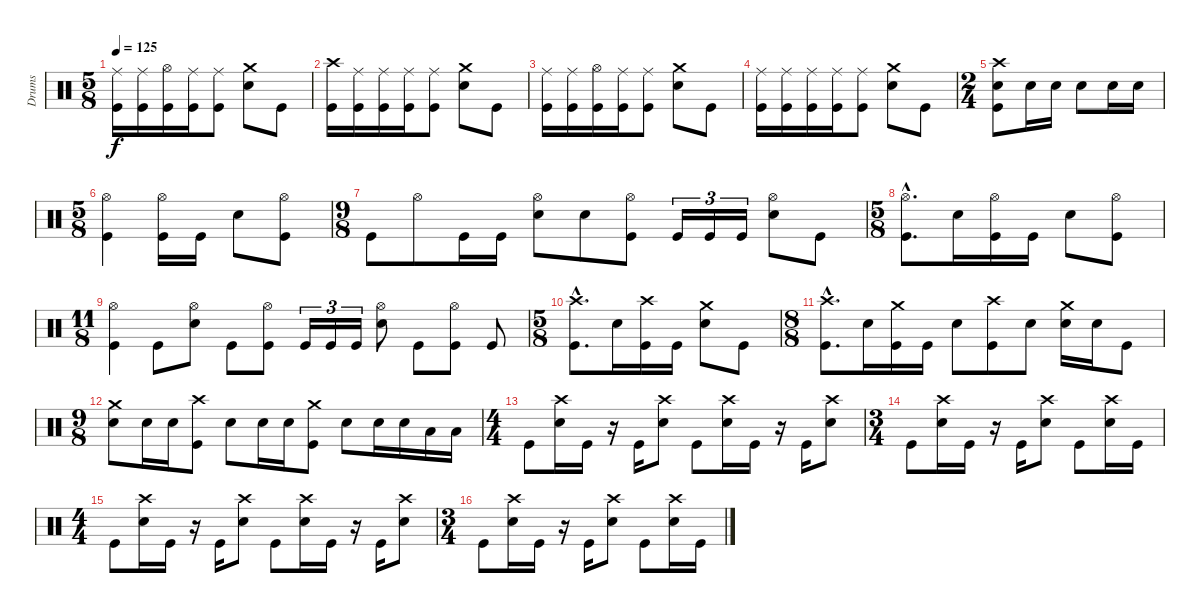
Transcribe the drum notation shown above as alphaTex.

\track ("Drums" "Drums") {instrument percussion}
\staff {score}
\articulation defaults
\ts (5 8)
\tempo 125
\clef neutral
\ks c
("Kick (hit)" "Ride (middle)").16{dy f} ("Kick (hit)" "Ride (middle)").16 ("Kick (hit)" "Hi-Hat (open)").16 ("Kick (hit)" "Ride (middle)").16 ("Kick (hit)" "Ride (middle)").8 ("Snare (hit) 2" "Crash medium (hit)").8 "Kick (hit)".8 |
("Kick (hit)" "Crash high (hit)").16 ("Kick (hit)" "Ride (middle)").16 ("Kick (hit)" "Ride (middle)").16 ("Kick (hit)" "Ride (middle)").16 ("Kick (hit)" "Ride (middle)").8 ("Snare (hit) 2" "Crash medium (hit)").8 "Kick (hit)".8 |
("Kick (hit)" "Ride (middle)").16 ("Kick (hit)" "Ride (middle)").16 ("Kick (hit)" "Hi-Hat (open)").16 ("Kick (hit)" "Ride (middle)").16 ("Kick (hit)" "Ride (middle)").8 ("Snare (hit) 2" "Crash medium (hit)").8 "Kick (hit)".8 |
("Kick (hit)" "Ride (middle)").16 ("Kick (hit)" "Ride (middle)").16 ("Kick (hit)" "Ride (middle)").16 ("Kick (hit)" "Ride (middle)").16 ("Kick (hit)" "Ride (middle)").8 ("Snare (hit) 2" "Crash medium (hit)").8 "Kick (hit)".8 |
\ts (2 4)
("Kick (hit)" "Snare (hit) 2" "Crash high (hit)").8 "Snare (hit) 2".16 "Snare (hit) 2".16 "Snare (hit) 2".8 "Snare (hit) 2".16 "Snare (hit) 2".16 |
\ts (5 8)
("Kick (hit)" "Hi-Hat (open)").4 ("Kick (hit)" "Hi-Hat (open)").16 "Kick (hit)".16 "Snare (hit) 2".8 ("Kick (hit)" "Hi-Hat (open)").8 |
\ts (9 8)
"Kick (hit)".8 "Hi-Hat (open)".8 "Kick (hit)".16 "Kick (hit)".16 ("Snare (hit) 2" "Hi-Hat (open)").8 "Snare (hit) 2".8 ("Kick (hit)" "Hi-Hat (open)").8 "Kick (hit)".16{tu (3 2)} "Kick (hit)".16{tu (3 2)} "Kick (hit)".16{tu (3 2)} ("Snare (hit) 2" "Hi-Hat (open)").8 "Kick (hit)".8 |
\ts (5 8)
("Kick (hit)"{hac} "Hi-Hat (open)"{hac}).8{d} "Snare (hit) 2".16 ("Kick (hit)" "Hi-Hat (open)").16 "Kick (hit)".16 "Snare (hit) 2".8 ("Kick (hit)" "Hi-Hat (open)").8 |
\ts (11 8)
("Kick (hit)" "Hi-Hat (open)").4 "Kick (hit)".8 ("Snare (hit) 2" "Hi-Hat (open)").8 "Kick (hit)".8 ("Kick (hit)" "Hi-Hat (open)").8 "Kick (hit)".16{tu (3 2)} "Kick (hit)".16{tu (3 2)} "Kick (hit)".16{tu (3 2)} ("Snare (hit) 2" "Hi-Hat (open)").8 "Kick (hit)".8 ("Kick (hit)" "Hi-Hat (open)").8 "Kick (hit)".8 |
\ts (5 8)
("Kick (hit)"{hac} "Crash high (hit)"{hac}).8{d} "Snare (hit) 2".16 ("Kick (hit)" "Crash high (hit)").16 "Kick (hit)".16 ("Snare (hit) 2" "Crash medium (hit)").8 "Kick (hit)".8 |
\ts (8 8)
("Kick (hit)"{hac} "Crash high (hit)"{hac}).8{d} "Snare (hit) 2".16 ("Kick (hit)" "Crash medium (hit)").16 "Kick (hit)".16 "Snare (hit) 2".8 ("Kick (hit)" "Crash high (hit)").8 "Snare (hit) 2".8 ("Snare (hit) 2" "Crash medium (hit)").16 "Snare (hit) 2".16 "Kick (hit)".8 |
\ts (9 8)
("Snare (hit) 2" "Crash medium (hit)").8 "Snare (hit) 2".16 "Snare (hit) 2".16 ("Kick (hit)" "Crash high (hit)").8 "Snare (hit) 2".8 "Snare (hit) 2".16 "Snare (hit) 2".16 ("Kick (hit)" "Crash medium (hit)").8 "Snare (hit) 2".8 "Snare (hit) 2".16 "Snare (hit) 2".16 "Low Tom (hit)".16 "Low Tom (hit)".16 |
\ts (4 4)
"Kick (hit)".8 ("Snare (hit) 2" "Crash high (hit)").16 "Kick (hit)".16 r.16 "Kick (hit)".16 ("Snare (hit) 2" "Crash high (hit)").8 "Kick (hit)".8 ("Snare (hit) 2" "Crash high (hit)").16 "Kick (hit)".16 r.16 "Kick (hit)".16 ("Snare (hit) 2" "Crash high (hit)").8 |
\ts (3 4)
"Kick (hit)".8 ("Snare (hit) 2" "Crash high (hit)").16 "Kick (hit)".16 r.16 "Kick (hit)".16 ("Snare (hit) 2" "Crash high (hit)").8 "Kick (hit)".8 ("Snare (hit) 2" "Crash high (hit)").16 "Kick (hit)".16 |
\ts (4 4)
"Kick (hit)".8 ("Snare (hit) 2" "Crash high (hit)").16 "Kick (hit)".16 r.16 "Kick (hit)".16 ("Snare (hit) 2" "Crash high (hit)").8 "Kick (hit)".8 ("Snare (hit) 2" "Crash high (hit)").16 "Kick (hit)".16 r.16 "Kick (hit)".16 ("Snare (hit) 2" "Crash high (hit)").8 |
\ts (3 4)
"Kick (hit)".8 ("Snare (hit) 2" "Crash high (hit)").16 "Kick (hit)".16 r.16 "Kick (hit)".16 ("Snare (hit) 2" "Crash high (hit)").8 "Kick (hit)".8 ("Snare (hit) 2" "Crash high (hit)").16 "Kick (hit)".16
